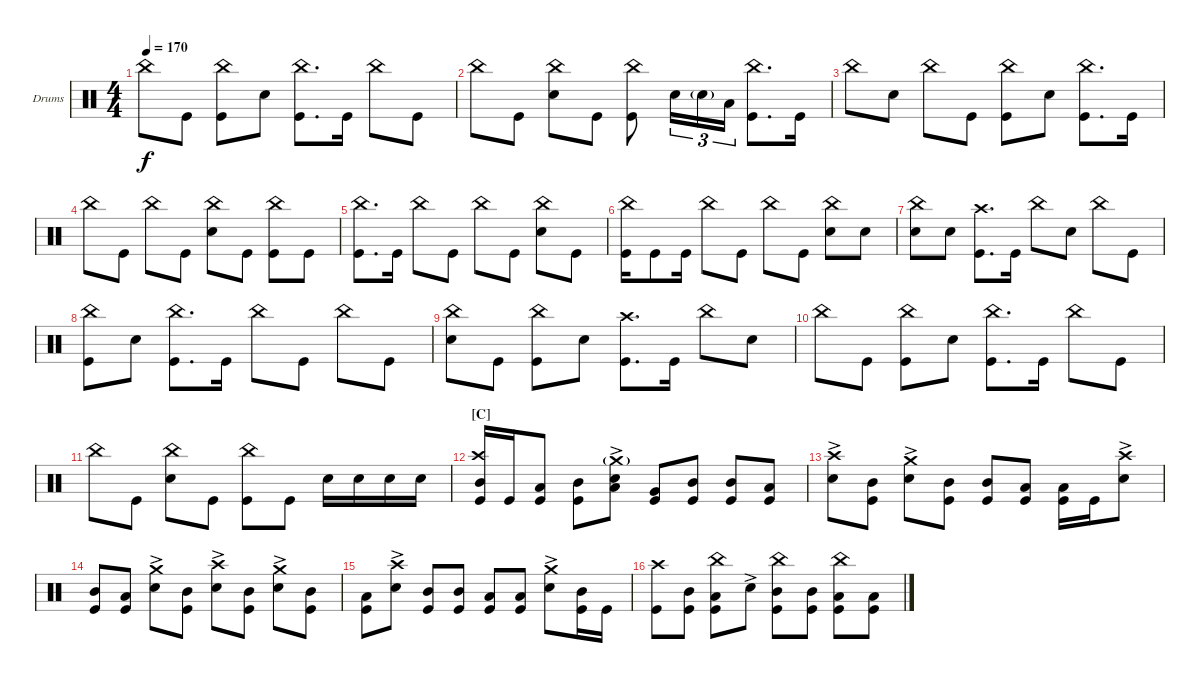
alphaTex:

\defaultSystemsLayout 4
\bracketExtendMode groupsimilarinstruments
\firstSystemTrackNameOrientation horizontal
\otherSystemsTrackNameOrientation horizontal
\track ("Drumkit" "Drums") {instrument percussion}
\staff {score}
\articulation defaults
\ts (4 4)
\tempo 170
\clef neutral
\ks c "China (hit)".8{dy f} "Kick (hit)".8
("China (hit)" "Kick (hit)").8 "Snare (hit) 2".8 ("China (hit)" "Kick (hit)").8{d} "Kick (hit)".16 "China (hit)".8 "Kick (hit)".8 |
"China (hit)".8 "Kick (hit)".8 ("China (hit)" "Snare (hit) 2").8 "Kick (hit)".8 ("China (hit)" "Kick (hit)").8 "Snare (hit) 2".16{tu (3 2)} "Snare (hit) 2"{g}.16{tu (3 2)} "Low Tom (hit)".16{tu (3 2)} ("China (hit)" "Kick (hit)").8{d} "Kick (hit)".16 |
"China (hit)".8 "Snare (hit) 2".8 "China (hit)".8 "Kick (hit)".8 ("China (hit)" "Kick (hit)").8 "Snare (hit) 2".8 ("China (hit)" "Kick (hit)").8{d} "Kick (hit)".16 |
"China (hit)".8 "Kick (hit)".8 "China (hit)".8 "Kick (hit)".8 ("China (hit)" "Snare (hit) 2").8 "Kick (hit)".8 ("China (hit)" "Kick (hit)").8 "Kick (hit)".8 |
("China (hit)" "Kick (hit)").8{d} "Kick (hit)".16 "China (hit)".8 "Kick (hit)".8 "China (hit)".8 "Kick (hit)".8 ("China (hit)" "Snare (hit) 2").8 "Kick (hit)".8 |
("China (hit)" "Kick (hit)").16 "Kick (hit)".8 "Kick (hit)".16 "China (hit)".8 "Kick (hit)".8 "China (hit)".8 "Kick (hit)".8 ("China (hit)" "Snare (hit) 2").8 "Snare (hit) 2".8 |
("China (hit)" "Snare (hit) 2").8 "Snare (hit) 2".8 ("Kick (hit)" "Crash high (hit)").8{d} "Kick (hit)".16 "China (hit)".8 "Snare (hit) 2".8 "China (hit)".8 "Kick (hit)".8 |
("China (hit)" "Kick (hit)").8 "Snare (hit) 2".8 ("China (hit)" "Kick (hit)").8{d} "Kick (hit)".16 "China (hit)".8 "Kick (hit)".8 "China (hit)".8 "Kick (hit)".8 |
("China (hit)" "Snare (hit) 2").8 "Kick (hit)".8 ("China (hit)" "Kick (hit)").8 "Snare (hit) 2".8 ("Kick (hit)" "Crash high (hit)").8{d} "Kick (hit)".16 "China (hit)".8 "Snare (hit) 2".8 |
"China (hit)".8 "Kick (hit)".8 ("China (hit)" "Kick (hit)").8 "Snare (hit) 2".8 ("China (hit)" "Kick (hit)").8{d} "Kick (hit)".16 "China (hit)".8 "Kick (hit)".8 |
"China (hit)".8 "Kick (hit)".8 ("China (hit)" "Snare (hit) 2").8 "Kick (hit)".8 ("China (hit)" "Kick (hit)").8 "Kick (hit)".8 "Snare (hit) 2".16 "Snare (hit) 2".16 "Snare (hit) 2".16 "Snare (hit) 2".16 |
\section ("C" "")
("Kick (hit)" "Mid Tom (hit)" "Crash high (hit)").16 "Kick (hit)".16 ("Kick (hit)" "Low Tom (hit)").8 ("Kick (hit)" "Mid Tom (hit)").8 ("Snare (hit) 2"{ac} "Crash medium (hit)"{g} "Low Tom (hit)").8 ("Kick (hit)" "Very Low Tom (hit)").8 ("Kick (hit)" "Mid Tom (hit)").8 ("Kick (hit)" "Mid Tom (hit)").8 ("Kick (hit)" "Low Tom (hit)").8 |
("Snare (hit) 2"{ac} "Crash high (hit)").8 ("Kick (hit)" "Mid Tom (hit)").8 ("Snare (hit) 2"{ac} "Crash medium (hit)").8 ("Kick (hit)" "Mid Tom (hit)").8 ("Kick (hit)" "Mid Tom (hit)").8 ("Kick (hit)" "Low Tom (hit)").8 ("Kick (hit)" "Low Tom (hit)").16 "Kick (hit)".16 ("Snare (hit) 2"{ac} "Crash high (hit)").8 |
("Kick (hit)" "Mid Tom (hit)").8 ("Kick (hit)" "Low Tom (hit)").8 ("Snare (hit) 2"{ac} "Crash medium (hit)").8 ("Kick (hit)" "Mid Tom (hit)").8 ("Snare (hit) 2"{ac} "Crash high (hit)").8 ("Kick (hit)" "Mid Tom (hit)").8 ("Snare (hit) 2"{ac} "Crash medium (hit)").8 ("Kick (hit)" "Mid Tom (hit)").8 |
("Kick (hit)" "Low Tom (hit)").8 ("Snare (hit) 2"{ac} "Crash high (hit)").8 ("Kick (hit)" "Mid Tom (hit)").8 ("Kick (hit)" "Mid Tom (hit)").8 ("Kick (hit)" "Low Tom (hit)").8 ("Kick (hit)" "Low Tom (hit)").8 ("Snare (hit) 2"{ac} "Crash medium (hit)").8 ("Kick (hit)" "Mid Tom (hit)").16 "Kick (hit)".16 |
("Kick (hit)" "Crash high (hit)").8 ("Kick (hit)" "Mid Tom (hit)").8 ("Kick (hit)" "Low Tom (hit)" "China (hit)").8 "Snare (hit) 2"{ac}.8 ("Kick (hit)" "Mid Tom (hit)" "China (hit)").8 ("Kick (hit)" "Mid Tom (hit)").8 ("Kick (hit)" "Low Tom (hit)" "China (hit)").8 ("Kick (hit)" "Low Tom (hit)").8
